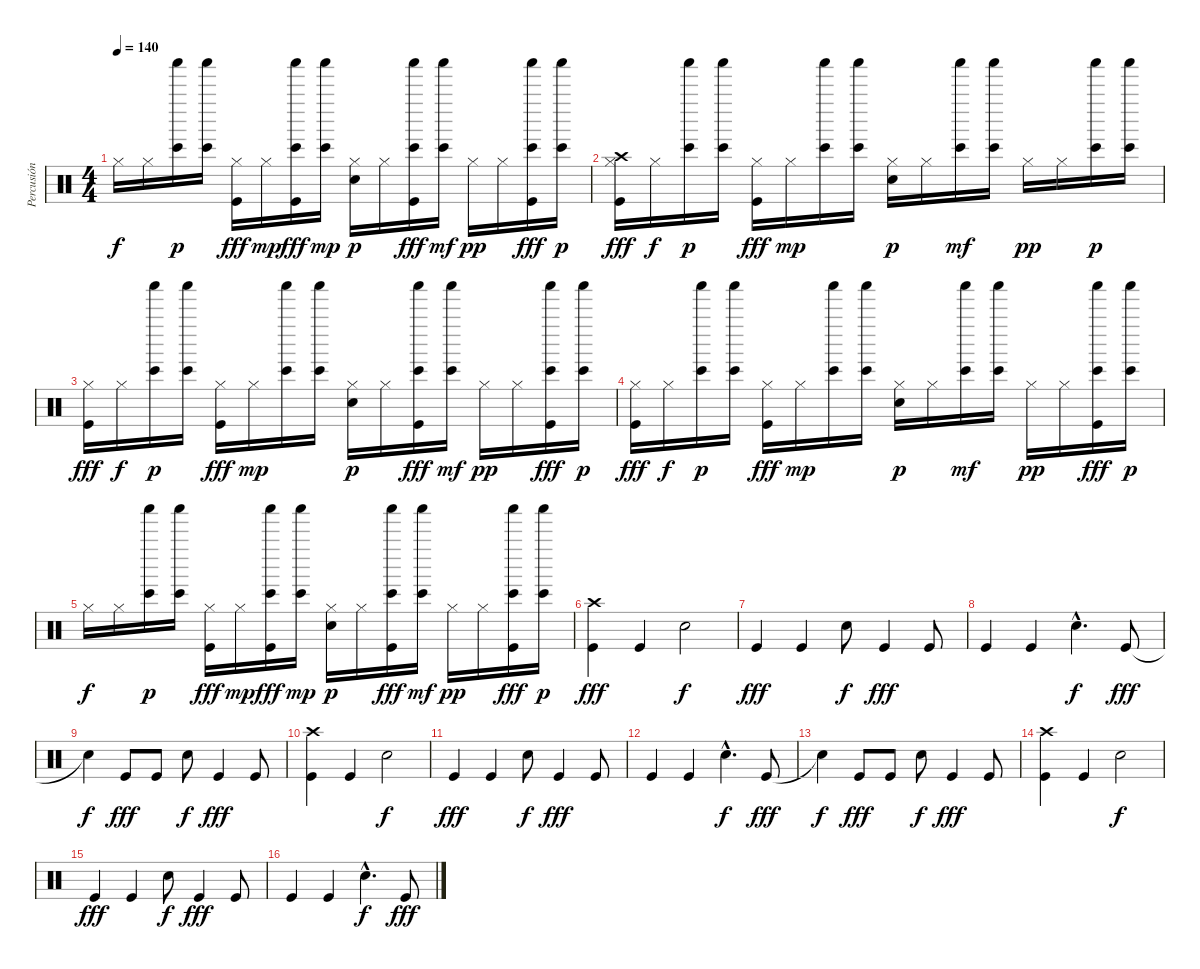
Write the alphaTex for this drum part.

\track ("Percusión" "Percusión") {instrument percussion}
\staff {score}
\articulation defaults
\ts (4 4)
\tempo 140
\clef neutral
\ks c "Hi-Hat (closed)".16{dy f balance 8} "Hi-Hat (closed)".16
("Bongo High (hit)" "Shaker (hit)").16{dy p balance 5} ("Bongo High (hit)" "Shaker (hit)").16 ("Hi-Hat (closed)" "Kick (hit)").16{dy fff balance 8} "Hi-Hat (closed)".16{dy mp} ("Bongo High (hit)" "Shaker (hit)" "Kick (hit)").16{dy fff balance 6} ("Bongo High (hit)" "Shaker (hit)").16{dy mp} ("Hi-Hat (closed)" "Electric Snare (hit)").16{dy p balance 8} "Hi-Hat (closed)".16 ("Bongo High (hit)" "Shaker (hit)" "Kick (hit)").16{dy fff balance 10} ("Bongo High (hit)" "Shaker (hit)").16{dy mf} "Hi-Hat (closed)".16{dy pp balance 8} "Hi-Hat (closed)".16 ("Bongo High (hit)" "Shaker (hit)" "Kick (hit)").16{dy fff balance 11} ("Bongo High (hit)" "Shaker (hit)").16{dy p} |
("Hi-Hat (closed)" "Crash high (hit)" "Kick (hit)").16{dy fff balance 8} "Hi-Hat (closed)".16{dy f} ("Bongo High (hit)" "Shaker (hit)").16{dy p balance 5} ("Bongo High (hit)" "Shaker (hit)").16 ("Hi-Hat (closed)" "Kick (hit)").16{dy fff balance 8} "Hi-Hat (closed)".16{dy mp} ("Bongo High (hit)" "Shaker (hit)").16{balance 6} ("Bongo High (hit)" "Shaker (hit)").16 ("Hi-Hat (closed)" "Electric Snare (hit)").16{dy p balance 8} "Hi-Hat (closed)".16 ("Bongo High (hit)" "Shaker (hit)").16{dy mf balance 10} ("Bongo High (hit)" "Shaker (hit)").16 "Hi-Hat (closed)".16{dy pp balance 8} "Hi-Hat (closed)".16 ("Bongo High (hit)" "Shaker (hit)").16{dy p balance 11} ("Bongo High (hit)" "Shaker (hit)").16 |
("Hi-Hat (closed)" "Kick (hit)").16{dy fff balance 8} "Hi-Hat (closed)".16{dy f} ("Bongo High (hit)" "Shaker (hit)").16{dy p balance 5} ("Bongo High (hit)" "Shaker (hit)").16 ("Hi-Hat (closed)" "Kick (hit)").16{dy fff balance 8} "Hi-Hat (closed)".16{dy mp} ("Bongo High (hit)" "Shaker (hit)").16{balance 6} ("Bongo High (hit)" "Shaker (hit)").16 ("Hi-Hat (closed)" "Electric Snare (hit)").16{dy p balance 8} "Hi-Hat (closed)".16 ("Bongo High (hit)" "Shaker (hit)" "Kick (hit)").16{dy fff balance 10} ("Bongo High (hit)" "Shaker (hit)").16{dy mf} "Hi-Hat (closed)".16{dy pp balance 8} "Hi-Hat (closed)".16 ("Bongo High (hit)" "Shaker (hit)" "Kick (hit)").16{dy fff balance 11} ("Bongo High (hit)" "Shaker (hit)").16{dy p} |
("Hi-Hat (closed)" "Kick (hit)").16{dy fff balance 8} "Hi-Hat (closed)".16{dy f} ("Bongo High (hit)" "Shaker (hit)").16{dy p balance 5} ("Bongo High (hit)" "Shaker (hit)").16 ("Hi-Hat (closed)" "Kick (hit)").16{dy fff balance 8} "Hi-Hat (closed)".16{dy mp} ("Bongo High (hit)" "Shaker (hit)").16{balance 6} ("Bongo High (hit)" "Shaker (hit)").16 ("Hi-Hat (closed)" "Electric Snare (hit)").16{dy p balance 8} "Hi-Hat (closed)".16 ("Bongo High (hit)" "Shaker (hit)").16{dy mf balance 10} ("Bongo High (hit)" "Shaker (hit)").16 "Hi-Hat (closed)".16{dy pp balance 8} "Hi-Hat (closed)".16 ("Bongo High (hit)" "Shaker (hit)" "Kick (hit)").16{dy fff balance 11} ("Bongo High (hit)" "Shaker (hit)").16{dy p} |
"Hi-Hat (closed)".16{dy f balance 8} "Hi-Hat (closed)".16 ("Bongo High (hit)" "Shaker (hit)").16{dy p balance 5} ("Bongo High (hit)" "Shaker (hit)").16 ("Hi-Hat (closed)" "Kick (hit)").16{dy fff balance 8} "Hi-Hat (closed)".16{dy mp} ("Bongo High (hit)" "Shaker (hit)" "Kick (hit)").16{dy fff balance 6} ("Bongo High (hit)" "Shaker (hit)").16{dy mp} ("Hi-Hat (closed)" "Electric Snare (hit)").16{dy p balance 8} "Hi-Hat (closed)".16 ("Bongo High (hit)" "Shaker (hit)" "Kick (hit)").16{dy fff balance 10} ("Bongo High (hit)" "Shaker (hit)").16{dy mf} "Hi-Hat (closed)".16{dy pp balance 8} "Hi-Hat (closed)".16 ("Bongo High (hit)" "Shaker (hit)" "Kick (hit)").16{dy fff balance 11} ("Bongo High (hit)" "Shaker (hit)").16{dy p} |
("Crash high (hit)" "Kick (hit)").4{dy fff} "Kick (hit)".4 "Electric Snare (hit)".2{dy f} |
"Kick (hit)".4{dy fff} "Kick (hit)".4 "Electric Snare (hit)".8{dy f} "Kick (hit)".4{dy fff} "Kick (hit)".8 |
"Kick (hit)".4 "Kick (hit)".4 "Electric Snare (hit)"{hac}.4{d dy f} "Kick (hit)".8{dy fff} |
"Snare (hit)"{t}.4{dy f} "Kick (hit)".8{dy fff} "Kick (hit)".8 "Electric Snare (hit)".8{dy f} "Kick (hit)".4{dy fff} "Kick (hit)".8 |
("Crash high (hit)" "Kick (hit)").4 "Kick (hit)".4 "Electric Snare (hit)".2{dy f} |
"Kick (hit)".4{dy fff} "Kick (hit)".4 "Electric Snare (hit)".8{dy f} "Kick (hit)".4{dy fff} "Kick (hit)".8 |
"Kick (hit)".4 "Kick (hit)".4 "Electric Snare (hit)"{hac}.4{d dy f} "Kick (hit)".8{dy fff} |
"Snare (hit)"{t}.4{dy f} "Kick (hit)".8{dy fff} "Kick (hit)".8 "Electric Snare (hit)".8{dy f} "Kick (hit)".4{dy fff} "Kick (hit)".8 |
("Crash high (hit)" "Kick (hit)").4 "Kick (hit)".4 "Electric Snare (hit)".2{dy f} |
"Kick (hit)".4{dy fff} "Kick (hit)".4 "Electric Snare (hit)".8{dy f} "Kick (hit)".4{dy fff} "Kick (hit)".8 |
"Kick (hit)".4 "Kick (hit)".4 "Electric Snare (hit)"{hac}.4{d dy f} "Kick (hit)".8{dy fff}
